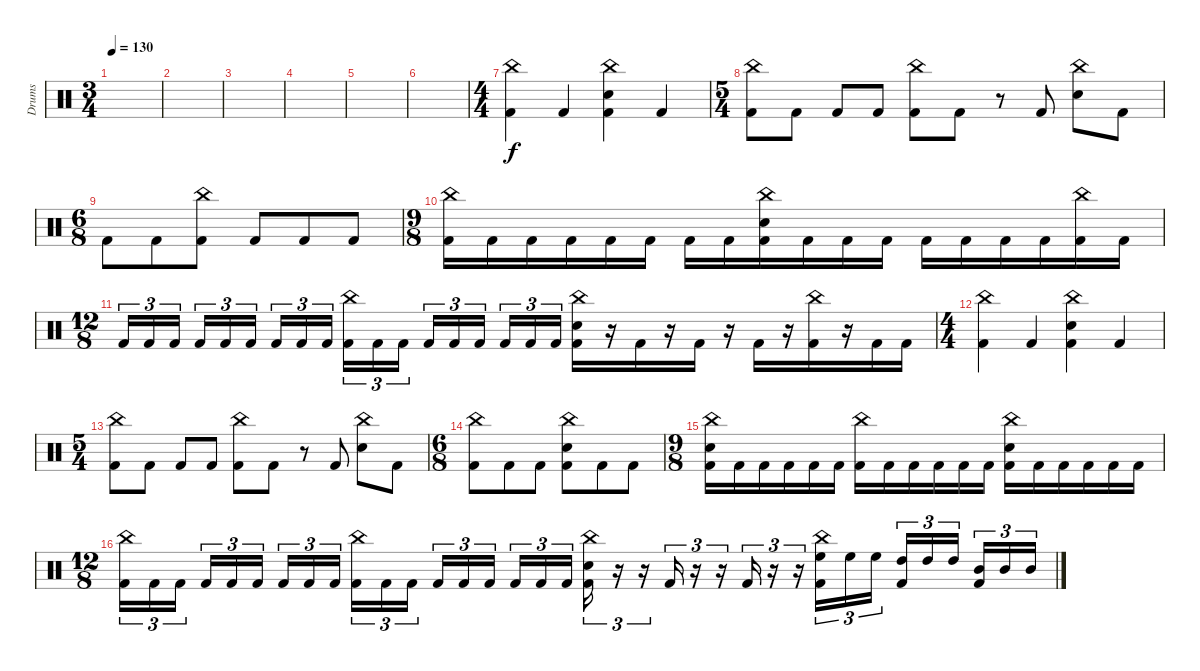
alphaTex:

\track ("Drums" "Drums") {instrument percussion}
\staff {score}
\articulation defaults
\ts (3 4)
\tempo 130
\clef neutral
\ks c
|
|
|
|
|
|
\ts (4 4)
("China (hit)" "Kick (hit) 2").4 "Kick (hit) 2".4 ("China (hit)" "Snare (hit) 2" "Kick (hit) 2").4 "Kick (hit) 2".4 |
\ts (5 4)
("China (hit)" "Kick (hit) 2").8 "Kick (hit) 2".8 "Kick (hit) 2".8 "Kick (hit) 2".8 ("China (hit)" "Kick (hit) 2").8 "Kick (hit) 2".8 r.8 "Kick (hit) 2".8 ("China (hit)" "Snare (hit) 2").8 "Kick (hit) 2".8 |
\ts (6 8)
"Kick (hit) 2".8 "Kick (hit) 2".8 ("China (hit)" "Kick (hit) 2").8 "Kick (hit) 2".8 "Kick (hit) 2".8 "Kick (hit) 2".8 |
\ts (9 8)
("China (hit)" "Kick (hit) 2").16 "Kick (hit) 2".16 "Kick (hit) 2".16 "Kick (hit) 2".16 "Kick (hit) 2".16 "Kick (hit) 2".16 "Kick (hit) 2".16 "Kick (hit) 2".16 ("China (hit)" "Snare (hit) 2" "Kick (hit) 2").16 "Kick (hit) 2".16 "Kick (hit) 2".16 "Kick (hit) 2".16 "Kick (hit) 2".16 "Kick (hit) 2".16 "Kick (hit) 2".16 "Kick (hit) 2".16 ("China (hit)" "Kick (hit) 2").16 "Kick (hit) 2".16 |
\ts (12 8)
"Kick (hit) 2".16{tu (3 2)} "Kick (hit) 2".16{tu (3 2)} "Kick (hit) 2".16{tu (3 2) beam splitsecondary} "Kick (hit) 2".16{tu (3 2)} "Kick (hit) 2".16{tu (3 2)} "Kick (hit) 2".16{tu (3 2) beam splitsecondary} "Kick (hit) 2".16{tu (3 2)} "Kick (hit) 2".16{tu (3 2)} "Kick (hit) 2".16{tu (3 2)} ("China (hit)" "Kick (hit) 2").16{tu (3 2)} "Kick (hit) 2".16{tu (3 2)} "Kick (hit) 2".16{tu (3 2) beam splitsecondary} "Kick (hit) 2".16{tu (3 2)} "Kick (hit) 2".16{tu (3 2)} "Kick (hit) 2".16{tu (3 2) beam splitsecondary} "Kick (hit) 2".16{tu (3 2)} "Kick (hit) 2".16{tu (3 2)} "Kick (hit) 2".16{tu (3 2)} ("China (hit)" "Snare (hit) 2" "Kick (hit) 2").16 r.16 "Kick (hit) 2".16 r.16 "Kick (hit) 2".16 r.16 "Kick (hit) 2".16 r.16 ("China (hit)" "Kick (hit) 2").16 r.16 "Kick (hit) 2".16 "Kick (hit) 2".16 |
\ts (4 4)
("China (hit)" "Kick (hit) 2").4 "Kick (hit) 2".4 ("China (hit)" "Snare (hit) 2" "Kick (hit) 2").4 "Kick (hit) 2".4 |
\ts (5 4)
("China (hit)" "Kick (hit) 2").8 "Kick (hit) 2".8 "Kick (hit) 2".8 "Kick (hit) 2".8 ("China (hit)" "Kick (hit) 2").8 "Kick (hit) 2".8 r.8 "Kick (hit) 2".8 ("China (hit)" "Snare (hit) 2").8 "Kick (hit) 2".8 |
\ts (6 8)
("China (hit)" "Kick (hit) 2").8 "Kick (hit) 2".8 "Kick (hit) 2".8 ("China (hit)" "Snare (hit) 2" "Kick (hit) 2").8 "Kick (hit) 2".8 "Kick (hit) 2".8 |
\ts (9 8)
("China (hit)" "Snare (hit) 2" "Kick (hit) 2").16 "Kick (hit) 2".16 "Kick (hit) 2".16 "Kick (hit) 2".16 "Kick (hit) 2".16 "Kick (hit) 2".16 ("China (hit)" "Kick (hit) 2").16 "Kick (hit) 2".16 "Kick (hit) 2".16 "Kick (hit) 2".16 "Kick (hit) 2".16 "Kick (hit) 2".16 ("China (hit)" "Snare (hit) 2" "Kick (hit) 2").16 "Kick (hit) 2".16 "Kick (hit) 2".16 "Kick (hit) 2".16 "Kick (hit) 2".16 "Kick (hit) 2".16 |
\ts (12 8)
("China (hit)" "Kick (hit) 2").16{tu (3 2)} "Kick (hit) 2".16{tu (3 2)} "Kick (hit) 2".16{tu (3 2) beam splitsecondary} "Kick (hit) 2".16{tu (3 2)} "Kick (hit) 2".16{tu (3 2)} "Kick (hit) 2".16{tu (3 2) beam splitsecondary} "Kick (hit) 2".16{tu (3 2)} "Kick (hit) 2".16{tu (3 2)} "Kick (hit) 2".16{tu (3 2)} ("China (hit)" "Kick (hit) 2").16{tu (3 2)} "Kick (hit) 2".16{tu (3 2)} "Kick (hit) 2".16{tu (3 2) beam splitsecondary} "Kick (hit) 2".16{tu (3 2)} "Kick (hit) 2".16{tu (3 2)} "Kick (hit) 2".16{tu (3 2) beam splitsecondary} "Kick (hit) 2".16{tu (3 2)} "Kick (hit) 2".16{tu (3 2)} "Kick (hit) 2".16{tu (3 2)} ("China (hit)" "Snare (hit) 2" "Kick (hit) 2").16{tu (3 2)} r.16{tu (3 2)} r.16{tu (3 2)} "Kick (hit) 2".16{tu (3 2)} r.16{tu (3 2)} r.16{tu (3 2)} "Kick (hit) 2".16{tu (3 2)} r.16{tu (3 2)} r.16{tu (3 2)} ("China (hit)" "High Floor Tom (hit)" "Kick (hit) 2").16{tu (3 2)} "High Floor Tom (hit)".16{tu (3 2)} "High Floor Tom (hit)".16{tu (3 2) beam splitsecondary} ("High Tom (hit)" "Kick (hit) 2").16{tu (3 2)} "High Tom (hit)".16{tu (3 2)} "High Tom (hit)".16{tu (3 2) beam splitsecondary} ("Mid Tom (hit)" "Kick (hit) 2").16{tu (3 2)} "Mid Tom (hit)".16{tu (3 2)} "Mid Tom (hit)".16{tu (3 2)}
